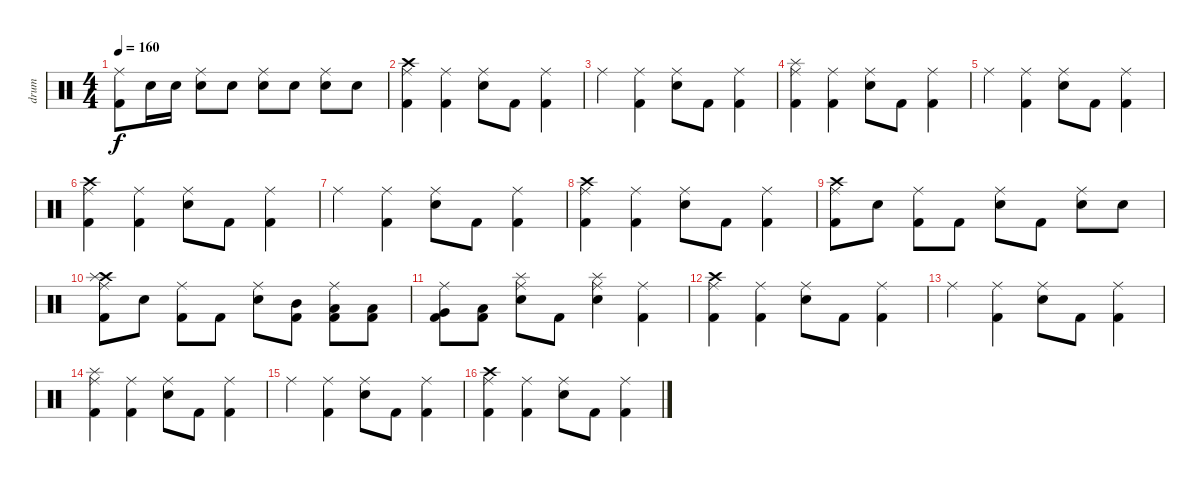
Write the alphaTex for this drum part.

\track ("drum" "drum") {instrument percussion}
\staff {score}
\articulation defaults
\ts (4 4)
\tempo 160
\clef neutral
\ks c
("Ride (middle)" "Kick (hit) 2").8{dy f} "Electric Snare (hit)".16 "Electric Snare (hit)".16 ("Ride (middle)" "Electric Snare (hit)").8 "Electric Snare (hit)".8 ("Ride (middle)" "Electric Snare (hit)").8 "Electric Snare (hit)".8 ("Ride (middle)" "Electric Snare (hit)").8 "Electric Snare (hit)".8 |
("Crash high (hit)" "Ride (middle)" "Kick (hit) 2").4 ("Ride (middle)" "Kick (hit) 2").4 ("Ride (middle)" "Electric Snare (hit)").8 "Kick (hit) 2".8 ("Ride (middle)" "Kick (hit) 2").4 |
"Ride (middle)".4 ("Ride (middle)" "Kick (hit) 2").4 ("Ride (middle)" "Electric Snare (hit)").8 "Kick (hit) 2".8 ("Ride (middle)" "Kick (hit) 2").4 |
("Splash (hit)" "Ride (middle)" "Kick (hit) 2").4 ("Ride (middle)" "Kick (hit) 2").4 ("Ride (middle)" "Electric Snare (hit)").8 "Kick (hit) 2".8 ("Ride (middle)" "Kick (hit) 2").4 |
"Ride (middle)".4 ("Ride (middle)" "Kick (hit) 2").4 ("Ride (middle)" "Electric Snare (hit)").8 "Kick (hit) 2".8 ("Ride (middle)" "Kick (hit) 2").4 |
("Crash high (hit)" "Ride (middle)" "Kick (hit) 2").4 ("Ride (middle)" "Kick (hit) 2").4 ("Ride (middle)" "Electric Snare (hit)").8 "Kick (hit) 2".8 ("Ride (middle)" "Kick (hit) 2").4 |
"Ride (middle)".4 ("Ride (middle)" "Kick (hit) 2").4 ("Ride (middle)" "Electric Snare (hit)").8 "Kick (hit) 2".8 ("Ride (middle)" "Kick (hit) 2").4 |
("Crash high (hit)" "Ride (middle)" "Kick (hit) 2").4 ("Ride (middle)" "Kick (hit) 2").4 ("Ride (middle)" "Electric Snare (hit)").8 "Kick (hit) 2".8 ("Ride (middle)" "Kick (hit) 2").4 |
("Crash high (hit)" "Ride (middle)" "Kick (hit) 2").8 "Electric Snare (hit)".8 ("Ride (middle)" "Kick (hit) 2").8 "Kick (hit) 2".8 ("Ride (middle)" "Electric Snare (hit)").8 "Kick (hit) 2".8 ("Ride (middle)" "Electric Snare (hit)").8 "Electric Snare (hit)".8 |
("Crash high (hit)" "Ride (middle)" "Splash (hit)" "Kick (hit) 2").8 "Electric Snare (hit)".8 ("Ride (middle)" "Kick (hit) 2").8 "Kick (hit) 2".8 ("Ride (middle)" "Electric Snare (hit)").8 ("Mid Tom (hit)" "Kick (hit) 2").8 ("Ride (middle)" "Low Tom (hit)" "Kick (hit) 2").8 ("Low Tom (hit)" "Kick (hit) 2").8 |
("Ride (middle)" "Very Low Tom (hit)" "Kick (hit) 2").8 ("Low Floor Tom (hit)" "Kick (hit) 2").8 ("Splash (hit)" "Ride (middle)" "Electric Snare (hit)").8 "Kick (hit) 2".8 ("Splash (hit)" "Ride (middle)" "Electric Snare (hit)").4 ("Ride (middle)" "Kick (hit) 2").4 |
("Crash high (hit)" "Ride (middle)" "Kick (hit) 2").4 ("Ride (middle)" "Kick (hit) 2").4 ("Ride (middle)" "Electric Snare (hit)").8 "Kick (hit) 2".8 ("Ride (middle)" "Kick (hit) 2").4 |
"Ride (middle)".4 ("Ride (middle)" "Kick (hit) 2").4 ("Ride (middle)" "Electric Snare (hit)").8 "Kick (hit) 2".8 ("Ride (middle)" "Kick (hit) 2").4 |
("Splash (hit)" "Ride (middle)" "Kick (hit) 2").4 ("Ride (middle)" "Kick (hit) 2").4 ("Ride (middle)" "Electric Snare (hit)").8 "Kick (hit) 2".8 ("Ride (middle)" "Kick (hit) 2").4 |
"Ride (middle)".4 ("Ride (middle)" "Kick (hit) 2").4 ("Ride (middle)" "Electric Snare (hit)").8 "Kick (hit) 2".8 ("Ride (middle)" "Kick (hit) 2").4 |
("Crash high (hit)" "Ride (middle)" "Kick (hit) 2").4 ("Ride (middle)" "Kick (hit) 2").4 ("Ride (middle)" "Electric Snare (hit)").8 "Kick (hit) 2".8 ("Ride (middle)" "Kick (hit) 2").4
